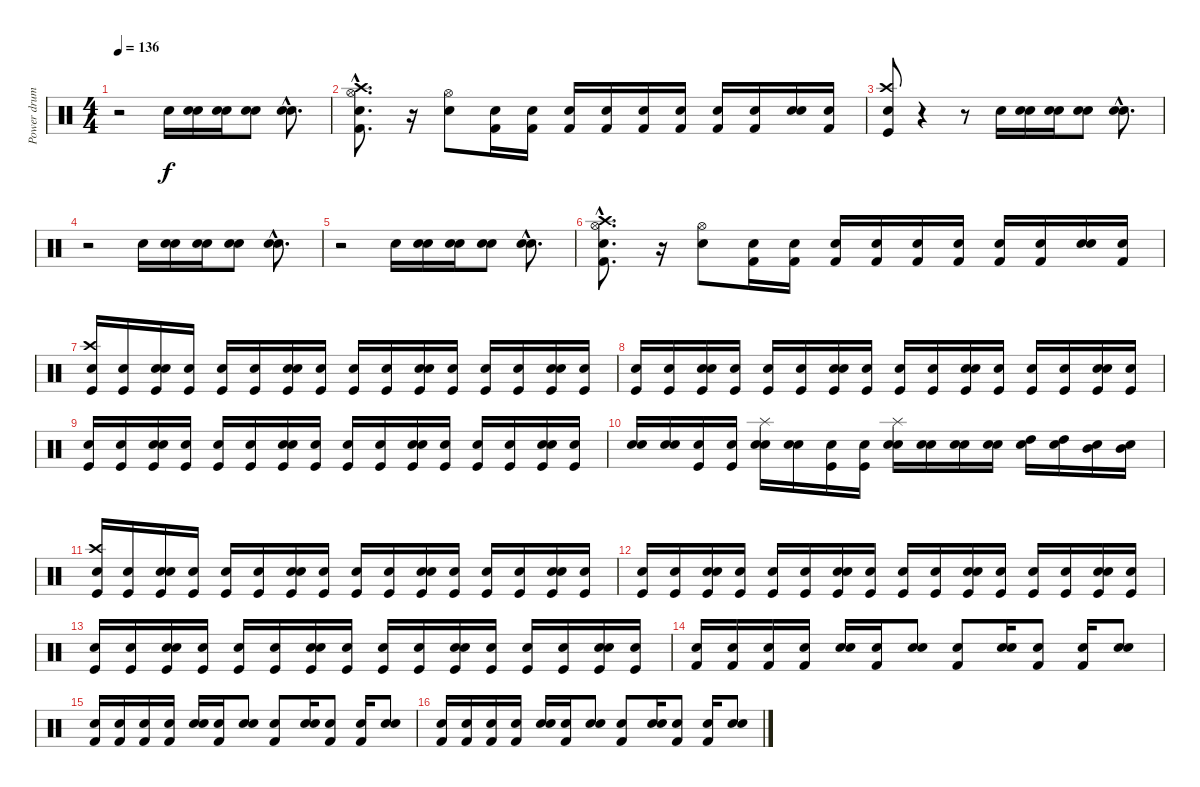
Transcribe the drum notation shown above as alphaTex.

\track ("Power drums" "Power drum") {instrument percussion}
\staff {score}
\articulation defaults
\ts (4 4)
\tempo 136
\clef neutral
\ks c
r.2{dy f} "Snare (hit) 2".16 ("Snare (hit)" "Snare (hit) 2").16 ("Snare (hit)" "Snare (hit) 2").16 ("Snare (hit)" "Snare (hit) 2").8 ("Snare (hit)"{hac} "Snare (hit) 2"{hac}).8{d} |
("Snare (hit)"{hac} "Kick (hit) 2"{hac} "Hi-Hat (open)"{hac} "Crash high (hit)"{hac}).8{d} r.16 ("Snare (hit) 2" "Hi-Hat (open)").8 ("Snare (hit)" "Kick (hit) 2").16 ("Snare (hit)" "Kick (hit) 2").16 ("Snare (hit)" "Kick (hit) 2").16 ("Snare (hit)" "Kick (hit) 2").16 ("Snare (hit)" "Kick (hit) 2").16 ("Snare (hit)" "Kick (hit) 2").16 ("Snare (hit)" "Kick (hit) 2").16 ("Snare (hit)" "Kick (hit) 2").16 ("Snare (hit)" "Snare (hit) 2").16 ("Snare (hit)" "Kick (hit) 2").16 |
("Snare (hit)" "Kick (hit)" "Crash high (hit)").8 r.4 r.8 "Snare (hit) 2".16 ("Snare (hit)" "Snare (hit) 2").16 ("Snare (hit)" "Snare (hit) 2").16 ("Snare (hit)" "Snare (hit) 2").8 ("Snare (hit)"{hac} "Snare (hit) 2"{hac}).8{d} |
r.2 "Snare (hit) 2".16 ("Snare (hit)" "Snare (hit) 2").16 ("Snare (hit)" "Snare (hit) 2").16 ("Snare (hit)" "Snare (hit) 2").8 ("Snare (hit)"{hac} "Snare (hit) 2"{hac}).8{d} |
r.2 "Snare (hit) 2".16 ("Snare (hit)" "Snare (hit) 2").16 ("Snare (hit)" "Snare (hit) 2").16 ("Snare (hit)" "Snare (hit) 2").8 ("Snare (hit)"{hac} "Snare (hit) 2"{hac}).8{d} |
("Snare (hit)"{hac} "Kick (hit) 2"{hac} "Hi-Hat (open)"{hac} "Crash high (hit)"{hac}).8{d} r.16 ("Snare (hit) 2" "Hi-Hat (open)").8 ("Snare (hit)" "Kick (hit) 2").16 ("Snare (hit)" "Kick (hit) 2").16 ("Snare (hit)" "Kick (hit) 2").16 ("Snare (hit)" "Kick (hit) 2").16 ("Snare (hit)" "Kick (hit) 2").16 ("Snare (hit)" "Kick (hit) 2").16 ("Snare (hit)" "Kick (hit) 2").16 ("Snare (hit)" "Kick (hit) 2").16 ("Snare (hit)" "Snare (hit) 2").16 ("Snare (hit)" "Kick (hit) 2").16 |
("Snare (hit)" "Kick (hit)" "Crash high (hit)").16 ("Snare (hit)" "Kick (hit)").16 ("Snare (hit)" "Kick (hit)" "Snare (hit) 2").16 ("Snare (hit)" "Kick (hit)").16 ("Snare (hit)" "Kick (hit)").16 ("Snare (hit)" "Kick (hit)").16 ("Snare (hit)" "Kick (hit)" "Snare (hit) 2").16 ("Snare (hit)" "Kick (hit)").16 ("Snare (hit)" "Kick (hit)").16 ("Snare (hit)" "Kick (hit)").16 ("Snare (hit)" "Kick (hit)" "Snare (hit) 2").16 ("Snare (hit)" "Kick (hit)").16 ("Snare (hit)" "Kick (hit)").16 ("Snare (hit)" "Kick (hit)").16 ("Snare (hit)" "Kick (hit)" "Snare (hit) 2").16 ("Snare (hit)" "Kick (hit)").16 |
("Snare (hit)" "Kick (hit)").16 ("Snare (hit)" "Kick (hit)").16 ("Snare (hit)" "Kick (hit)" "Snare (hit) 2").16 ("Snare (hit)" "Kick (hit)").16 ("Snare (hit)" "Kick (hit)").16 ("Snare (hit)" "Kick (hit)").16 ("Snare (hit)" "Kick (hit)" "Snare (hit) 2").16 ("Snare (hit)" "Kick (hit)").16 ("Snare (hit)" "Kick (hit)").16 ("Snare (hit)" "Kick (hit)").16 ("Snare (hit)" "Kick (hit)" "Snare (hit) 2").16 ("Snare (hit)" "Kick (hit)").16 ("Snare (hit)" "Kick (hit)").16 ("Snare (hit)" "Kick (hit)").16 ("Snare (hit)" "Kick (hit)" "Snare (hit) 2").16 ("Snare (hit)" "Kick (hit)").16 |
("Snare (hit)" "Kick (hit)").16 ("Snare (hit)" "Kick (hit)").16 ("Snare (hit)" "Kick (hit)" "Snare (hit) 2").16 ("Snare (hit)" "Kick (hit)").16 ("Snare (hit)" "Kick (hit)").16 ("Snare (hit)" "Kick (hit)").16 ("Snare (hit)" "Kick (hit)" "Snare (hit) 2").16 ("Snare (hit)" "Kick (hit)").16 ("Snare (hit)" "Kick (hit)").16 ("Snare (hit)" "Kick (hit)").16 ("Snare (hit)" "Kick (hit)" "Snare (hit) 2").16 ("Snare (hit)" "Kick (hit)").16 ("Snare (hit)" "Kick (hit)").16 ("Snare (hit)" "Kick (hit)").16 ("Snare (hit)" "Kick (hit)" "Snare (hit) 2").16 ("Snare (hit)" "Kick (hit)").16 |
("Snare (hit)" "Snare (hit) 2").16 ("Snare (hit)" "Snare (hit) 2").16 ("Snare (hit)" "Kick (hit)").16 ("Snare (hit)" "Kick (hit)").16 ("Snare (hit)" "Snare (hit) 2" "Splash (hit)").16 ("Snare (hit)" "Snare (hit) 2").16 ("Snare (hit)" "Kick (hit)").16 ("Snare (hit)" "Kick (hit)").16 ("Snare (hit)" "Snare (hit) 2" "Splash (hit)").16 ("Snare (hit)" "Snare (hit) 2").16 ("Snare (hit)" "Snare (hit) 2").16 ("Snare (hit)" "Snare (hit) 2").16 ("Snare (hit)" "High Tom (hit)").16 ("Snare (hit)" "High Tom (hit)").16 ("Snare (hit)" "Mid Tom (hit)").16 ("Snare (hit)" "Mid Tom (hit)").16 |
("Snare (hit)" "Kick (hit)" "Crash high (hit)").16 ("Snare (hit)" "Kick (hit)").16 ("Snare (hit)" "Kick (hit)" "Snare (hit) 2").16 ("Snare (hit)" "Kick (hit)").16 ("Snare (hit)" "Kick (hit)").16 ("Snare (hit)" "Kick (hit)").16 ("Snare (hit)" "Kick (hit)" "Snare (hit) 2").16 ("Snare (hit)" "Kick (hit)").16 ("Snare (hit)" "Kick (hit)").16 ("Snare (hit)" "Kick (hit)").16 ("Snare (hit)" "Kick (hit)" "Snare (hit) 2").16 ("Snare (hit)" "Kick (hit)").16 ("Snare (hit)" "Kick (hit)").16 ("Snare (hit)" "Kick (hit)").16 ("Snare (hit)" "Kick (hit)" "Snare (hit) 2").16 ("Snare (hit)" "Kick (hit)").16 |
("Snare (hit)" "Kick (hit)").16 ("Snare (hit)" "Kick (hit)").16 ("Snare (hit)" "Kick (hit)" "Snare (hit) 2").16 ("Snare (hit)" "Kick (hit)").16 ("Snare (hit)" "Kick (hit)").16 ("Snare (hit)" "Kick (hit)").16 ("Snare (hit)" "Kick (hit)" "Snare (hit) 2").16 ("Snare (hit)" "Kick (hit)").16 ("Snare (hit)" "Kick (hit)").16 ("Snare (hit)" "Kick (hit)").16 ("Snare (hit)" "Kick (hit)" "Snare (hit) 2").16 ("Snare (hit)" "Kick (hit)").16 ("Snare (hit)" "Kick (hit)").16 ("Snare (hit)" "Kick (hit)").16 ("Snare (hit)" "Kick (hit)" "Snare (hit) 2").16 ("Snare (hit)" "Kick (hit)").16 |
("Snare (hit)" "Kick (hit)").16 ("Snare (hit)" "Kick (hit)").16 ("Snare (hit)" "Kick (hit)" "Snare (hit) 2").16 ("Snare (hit)" "Kick (hit)").16 ("Snare (hit)" "Kick (hit)").16 ("Snare (hit)" "Kick (hit)").16 ("Snare (hit)" "Kick (hit)" "Snare (hit) 2").16 ("Snare (hit)" "Kick (hit)").16 ("Snare (hit)" "Kick (hit)").16 ("Snare (hit)" "Kick (hit)").16 ("Snare (hit)" "Kick (hit)" "Snare (hit) 2").16 ("Snare (hit)" "Kick (hit)").16 ("Snare (hit)" "Kick (hit)").16 ("Snare (hit)" "Kick (hit)").16 ("Snare (hit)" "Kick (hit)" "Snare (hit) 2").16 ("Snare (hit)" "Kick (hit)").16 |
("Snare (hit)" "Kick (hit) 2").16 ("Snare (hit)" "Kick (hit) 2").16 ("Snare (hit)" "Kick (hit) 2").16 ("Snare (hit)" "Kick (hit) 2").16 ("Snare (hit)" "Snare (hit) 2").16 ("Snare (hit)" "Kick (hit) 2").16 ("Snare (hit)" "Snare (hit) 2").8 ("Snare (hit)" "Kick (hit) 2").8 ("Snare (hit)" "Snare (hit) 2").16 ("Snare (hit)" "Kick (hit) 2").8 ("Snare (hit)" "Kick (hit) 2").16 ("Snare (hit)" "Snare (hit) 2").8 |
("Snare (hit)" "Kick (hit) 2").16 ("Snare (hit)" "Kick (hit) 2").16 ("Snare (hit)" "Kick (hit) 2").16 ("Snare (hit)" "Kick (hit) 2").16 ("Snare (hit)" "Snare (hit) 2").16 ("Snare (hit)" "Kick (hit) 2").16 ("Snare (hit)" "Snare (hit) 2").8 ("Snare (hit)" "Kick (hit) 2").8 ("Snare (hit)" "Snare (hit) 2").16 ("Snare (hit)" "Kick (hit) 2").8 ("Snare (hit)" "Kick (hit) 2").16 ("Snare (hit)" "Snare (hit) 2").8 |
("Snare (hit)" "Kick (hit) 2").16 ("Snare (hit)" "Kick (hit) 2").16 ("Snare (hit)" "Kick (hit) 2").16 ("Snare (hit)" "Kick (hit) 2").16 ("Snare (hit)" "Snare (hit) 2").16 ("Snare (hit)" "Kick (hit) 2").16 ("Snare (hit)" "Snare (hit) 2").8 ("Snare (hit)" "Kick (hit) 2").8 ("Snare (hit)" "Snare (hit) 2").16 ("Snare (hit)" "Kick (hit) 2").8 ("Snare (hit)" "Kick (hit) 2").16 ("Snare (hit)" "Snare (hit) 2").8
